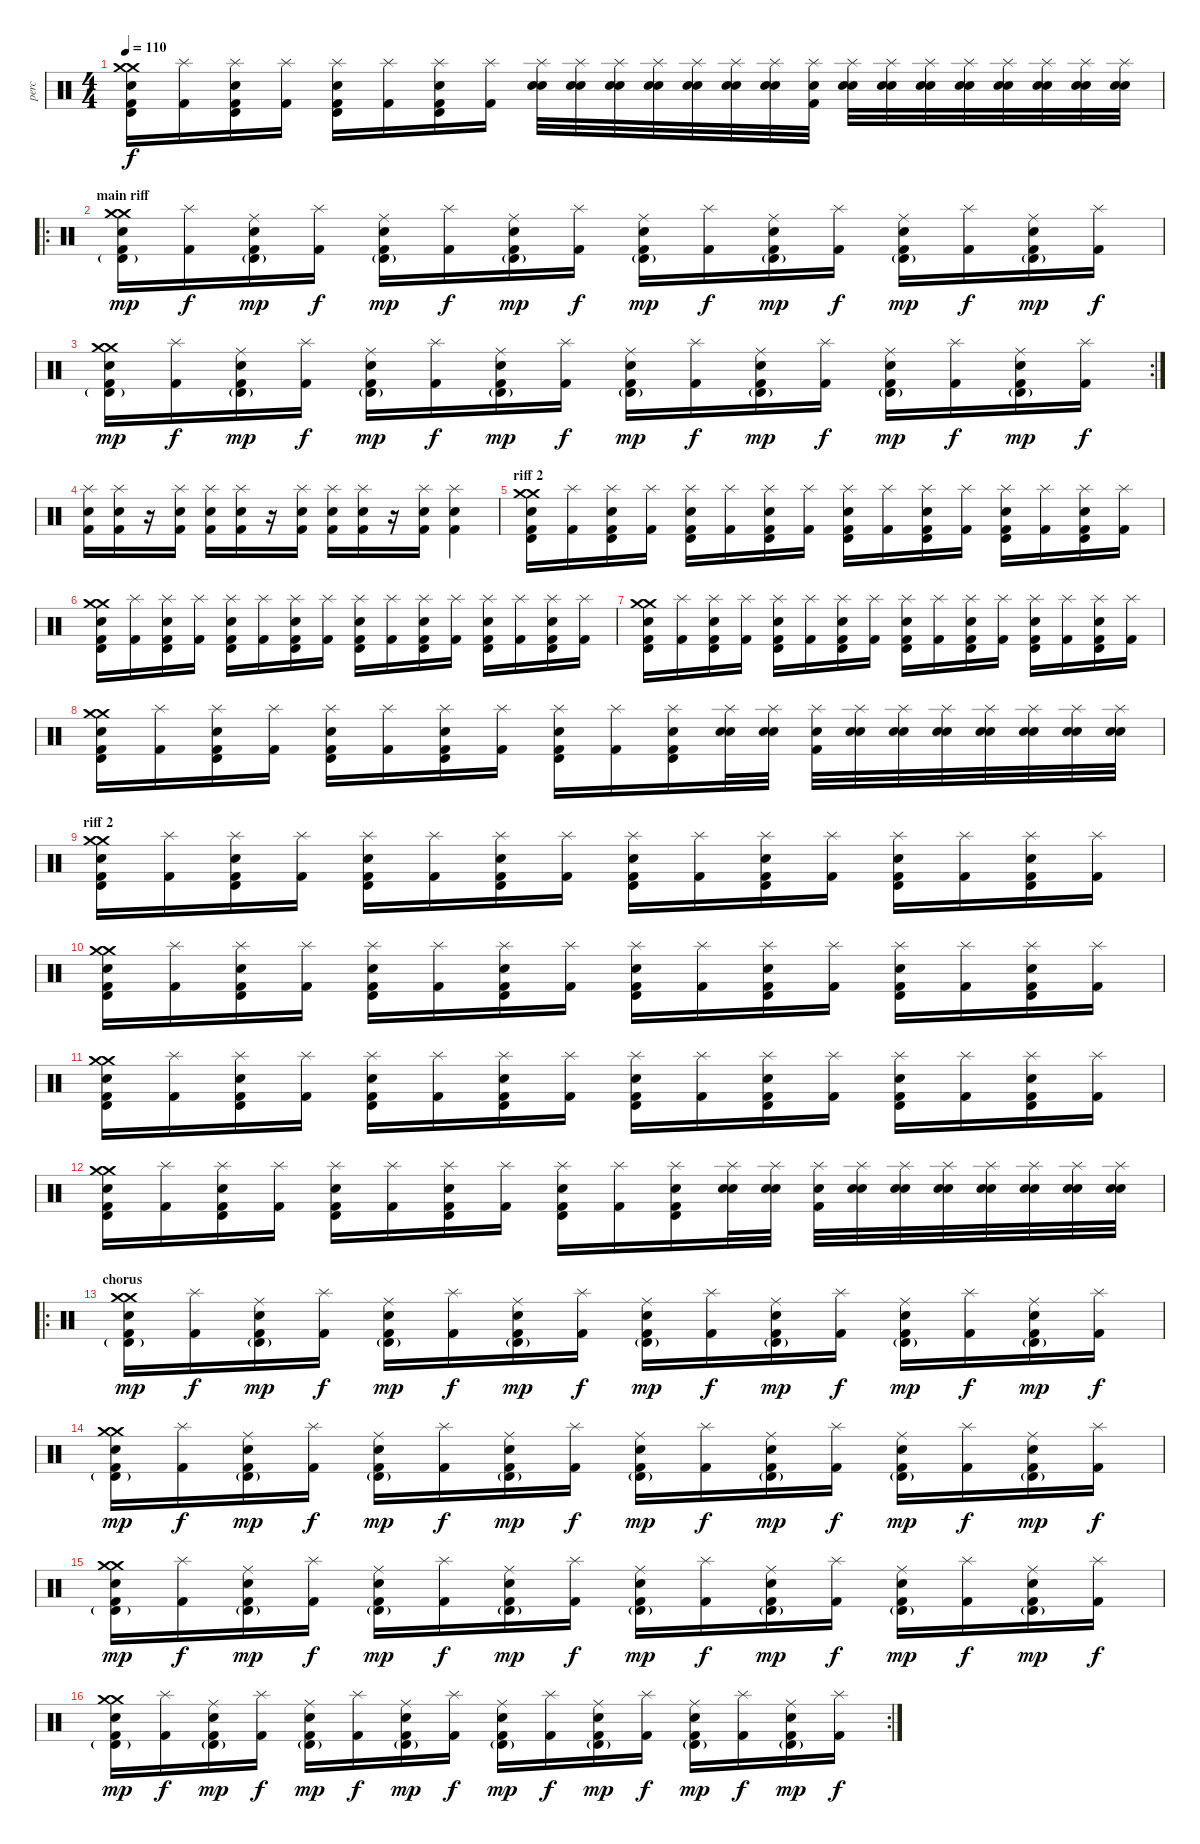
\track ("perc" "perc") {instrument percussion}
\staff {score}
\articulation defaults
\ts (4 4)
\tempo 110
\clef neutral
\ks c
("Crash medium (hit)" "Timbale high (hit)" "Crash medium (hit)" "Kick (hit) 2" "Snare (hit) 2").16{dy f} ("Splash (hit)" "Kick (hit) 2").16 ("Timbale high (hit)" "Splash (hit)" "Kick (hit) 2" "Snare (hit) 2").16 ("Splash (hit)" "Kick (hit) 2").16 ("Timbale high (hit)" "Splash (hit)" "Kick (hit) 2" "Snare (hit) 2").16 ("Splash (hit)" "Kick (hit) 2").16 ("Timbale high (hit)" "Splash (hit)" "Kick (hit) 2" "Snare (hit) 2").16 ("Splash (hit)" "Kick (hit) 2").16 ("Splash (hit)" "Snare (hit) 2" "Snare (hit) 2").32 ("Splash (hit)" "Snare (hit) 2" "Snare (hit) 2").32 ("Splash (hit)" "Snare (hit) 2" "Snare (hit) 2").32 ("Splash (hit)" "Snare (hit) 2" "Snare (hit) 2").32 ("Splash (hit)" "Snare (hit) 2" "Snare (hit) 2").32 ("Splash (hit)" "Snare (hit) 2" "Snare (hit) 2").32 ("Splash (hit)" "Snare (hit) 2" "Snare (hit) 2").32 ("Splash (hit)" "Kick (hit) 2" "Snare (hit) 2").32 ("Splash (hit)" "Snare (hit) 2" "Snare (hit) 2").32 ("Splash (hit)" "Snare (hit) 2" "Snare (hit) 2").32 ("Splash (hit)" "Snare (hit) 2" "Snare (hit) 2").32 ("Splash (hit)" "Snare (hit) 2" "Snare (hit) 2").32 ("Splash (hit)" "Snare (hit) 2" "Snare (hit) 2").32 ("Splash (hit)" "Snare (hit) 2" "Snare (hit) 2").32 ("Splash (hit)" "Snare (hit) 2" "Snare (hit) 2").32 ("Splash (hit)" "Snare (hit) 2" "Snare (hit) 2").32 |
\ro
\section ("" "main riff")
("Crash medium (hit)" "Timbale high (hit)"{g} "Crash medium (hit)" "Kick (hit) 2" "Snare (hit) 2").16{dy mp} ("Splash (hit)" "Kick (hit) 2").16{dy f} ("Timbale high (hit)"{g} "Ride (middle)" "Kick (hit) 2" "Snare (hit) 2").16{dy mp} ("Splash (hit)" "Kick (hit) 2").16{dy f} ("Timbale high (hit)"{g} "Ride (middle)" "Kick (hit) 2" "Snare (hit) 2").16{dy mp} ("Splash (hit)" "Kick (hit) 2").16{dy f} ("Timbale high (hit)"{g} "Ride (middle)" "Kick (hit) 2" "Snare (hit) 2").16{dy mp} ("Splash (hit)" "Kick (hit) 2").16{dy f} ("Timbale high (hit)"{g} "Ride (middle)" "Kick (hit) 2" "Snare (hit) 2").16{dy mp} ("Splash (hit)" "Kick (hit) 2").16{dy f} ("Timbale high (hit)"{g} "Ride (middle)" "Kick (hit) 2" "Snare (hit) 2").16{dy mp} ("Splash (hit)" "Kick (hit) 2").16{dy f} ("Timbale high (hit)"{g} "Ride (middle)" "Kick (hit) 2" "Snare (hit) 2").16{dy mp} ("Splash (hit)" "Kick (hit) 2").16{dy f} ("Timbale high (hit)"{g} "Ride (middle)" "Kick (hit) 2" "Snare (hit) 2").16{dy mp} ("Splash (hit)" "Kick (hit) 2").16{dy f} |
\rc 2
("Crash medium (hit)" "Timbale high (hit)"{g} "Crash medium (hit)" "Kick (hit) 2" "Snare (hit) 2").16{dy mp} ("Splash (hit)" "Kick (hit) 2").16{dy f} ("Timbale high (hit)"{g} "Ride (middle)" "Kick (hit) 2" "Snare (hit) 2").16{dy mp} ("Splash (hit)" "Kick (hit) 2").16{dy f} ("Timbale high (hit)"{g} "Ride (middle)" "Kick (hit) 2" "Snare (hit) 2").16{dy mp} ("Splash (hit)" "Kick (hit) 2").16{dy f} ("Timbale high (hit)"{g} "Ride (middle)" "Kick (hit) 2" "Snare (hit) 2").16{dy mp} ("Splash (hit)" "Kick (hit) 2").16{dy f} ("Timbale high (hit)"{g} "Ride (middle)" "Kick (hit) 2" "Snare (hit) 2").16{dy mp} ("Splash (hit)" "Kick (hit) 2").16{dy f} ("Timbale high (hit)"{g} "Ride (middle)" "Kick (hit) 2" "Snare (hit) 2").16{dy mp} ("Splash (hit)" "Kick (hit) 2").16{dy f} ("Timbale high (hit)"{g} "Ride (middle)" "Kick (hit) 2" "Snare (hit) 2").16{dy mp} ("Splash (hit)" "Kick (hit) 2").16{dy f} ("Timbale high (hit)"{g} "Ride (middle)" "Kick (hit) 2" "Snare (hit) 2").16{dy mp} ("Splash (hit)" "Kick (hit) 2").16{dy f} |
("Splash (hit)" "Snare (hit) 2" "Kick (hit) 2").16 ("Splash (hit)" "Snare (hit) 2" "Kick (hit) 2").16 r.16 ("Splash (hit)" "Snare (hit) 2" "Kick (hit) 2").16 ("Splash (hit)" "Snare (hit) 2" "Kick (hit) 2").16 ("Splash (hit)" "Snare (hit) 2" "Kick (hit) 2").16 r.16 ("Splash (hit)" "Snare (hit) 2" "Kick (hit) 2").16 ("Splash (hit)" "Snare (hit) 2" "Kick (hit) 2").16 ("Splash (hit)" "Snare (hit) 2" "Kick (hit) 2").16 r.16 ("Splash (hit)" "Snare (hit) 2" "Kick (hit) 2").16 ("Splash (hit)" "Snare (hit) 2" "Kick (hit) 2").4 |
\section ("" "riff 2")
("Crash medium (hit)" "Timbale high (hit)" "Crash medium (hit)" "Kick (hit) 2" "Snare (hit) 2").16 ("Splash (hit)" "Kick (hit) 2").16 ("Timbale high (hit)" "Splash (hit)" "Kick (hit) 2" "Snare (hit) 2").16 ("Splash (hit)" "Kick (hit) 2").16 ("Timbale high (hit)" "Splash (hit)" "Kick (hit) 2" "Snare (hit) 2").16 ("Splash (hit)" "Kick (hit) 2").16 ("Timbale high (hit)" "Splash (hit)" "Kick (hit) 2" "Snare (hit) 2").16 ("Splash (hit)" "Kick (hit) 2").16 ("Timbale high (hit)" "Splash (hit)" "Kick (hit) 2" "Snare (hit) 2").16 ("Splash (hit)" "Kick (hit) 2").16 ("Timbale high (hit)" "Splash (hit)" "Kick (hit) 2" "Snare (hit) 2").16 ("Splash (hit)" "Kick (hit) 2").16 ("Timbale high (hit)" "Splash (hit)" "Kick (hit) 2" "Snare (hit) 2").16 ("Splash (hit)" "Kick (hit) 2").16 ("Timbale high (hit)" "Splash (hit)" "Kick (hit) 2" "Snare (hit) 2").16 ("Splash (hit)" "Kick (hit) 2").16 |
("Crash medium (hit)" "Timbale high (hit)" "Crash medium (hit)" "Kick (hit) 2" "Snare (hit) 2").16 ("Splash (hit)" "Kick (hit) 2").16 ("Timbale high (hit)" "Splash (hit)" "Kick (hit) 2" "Snare (hit) 2").16 ("Splash (hit)" "Kick (hit) 2").16 ("Timbale high (hit)" "Splash (hit)" "Kick (hit) 2" "Snare (hit) 2").16 ("Splash (hit)" "Kick (hit) 2").16 ("Timbale high (hit)" "Splash (hit)" "Kick (hit) 2" "Snare (hit) 2").16 ("Splash (hit)" "Kick (hit) 2").16 ("Timbale high (hit)" "Splash (hit)" "Kick (hit) 2" "Snare (hit) 2").16 ("Splash (hit)" "Kick (hit) 2").16 ("Timbale high (hit)" "Splash (hit)" "Kick (hit) 2" "Snare (hit) 2").16 ("Splash (hit)" "Kick (hit) 2").16 ("Timbale high (hit)" "Splash (hit)" "Kick (hit) 2" "Snare (hit) 2").16 ("Splash (hit)" "Kick (hit) 2").16 ("Timbale high (hit)" "Splash (hit)" "Kick (hit) 2" "Snare (hit) 2").16 ("Splash (hit)" "Kick (hit) 2").16 |
("Crash medium (hit)" "Timbale high (hit)" "Crash medium (hit)" "Kick (hit) 2" "Snare (hit) 2").16 ("Splash (hit)" "Kick (hit) 2").16 ("Timbale high (hit)" "Splash (hit)" "Kick (hit) 2" "Snare (hit) 2").16 ("Splash (hit)" "Kick (hit) 2").16 ("Timbale high (hit)" "Splash (hit)" "Kick (hit) 2" "Snare (hit) 2").16 ("Splash (hit)" "Kick (hit) 2").16 ("Timbale high (hit)" "Splash (hit)" "Kick (hit) 2" "Snare (hit) 2").16 ("Splash (hit)" "Kick (hit) 2").16 ("Timbale high (hit)" "Splash (hit)" "Kick (hit) 2" "Snare (hit) 2").16 ("Splash (hit)" "Kick (hit) 2").16 ("Timbale high (hit)" "Splash (hit)" "Kick (hit) 2" "Snare (hit) 2").16 ("Splash (hit)" "Kick (hit) 2").16 ("Timbale high (hit)" "Splash (hit)" "Kick (hit) 2" "Snare (hit) 2").16 ("Splash (hit)" "Kick (hit) 2").16 ("Timbale high (hit)" "Splash (hit)" "Kick (hit) 2" "Snare (hit) 2").16 ("Splash (hit)" "Kick (hit) 2").16 |
("Crash medium (hit)" "Timbale high (hit)" "Crash medium (hit)" "Kick (hit) 2" "Snare (hit) 2").16 ("Splash (hit)" "Kick (hit) 2").16 ("Timbale high (hit)" "Splash (hit)" "Kick (hit) 2" "Snare (hit) 2").16 ("Splash (hit)" "Kick (hit) 2").16 ("Timbale high (hit)" "Splash (hit)" "Kick (hit) 2" "Snare (hit) 2").16 ("Splash (hit)" "Kick (hit) 2").16 ("Timbale high (hit)" "Splash (hit)" "Kick (hit) 2" "Snare (hit) 2").16 ("Splash (hit)" "Kick (hit) 2").16 ("Timbale high (hit)" "Splash (hit)" "Kick (hit) 2" "Snare (hit) 2").16 ("Splash (hit)" "Kick (hit) 2").16 ("Timbale high (hit)" "Splash (hit)" "Kick (hit) 2" "Snare (hit) 2").16 ("Splash (hit)" "Snare (hit) 2" "Snare (hit) 2").32 ("Splash (hit)" "Snare (hit) 2" "Snare (hit) 2").32 ("Splash (hit)" "Kick (hit) 2" "Snare (hit) 2").32 ("Splash (hit)" "Snare (hit) 2" "Snare (hit) 2").32 ("Splash (hit)" "Snare (hit) 2" "Snare (hit) 2").32 ("Splash (hit)" "Snare (hit) 2" "Snare (hit) 2").32 ("Splash (hit)" "Snare (hit) 2" "Snare (hit) 2").32 ("Splash (hit)" "Snare (hit) 2" "Snare (hit) 2").32 ("Splash (hit)" "Snare (hit) 2" "Snare (hit) 2").32 ("Splash (hit)" "Snare (hit) 2" "Snare (hit) 2").32 |
\section ("" "riff 2")
("Crash medium (hit)" "Timbale high (hit)" "Crash medium (hit)" "Kick (hit) 2" "Snare (hit) 2").16 ("Splash (hit)" "Kick (hit) 2").16 ("Timbale high (hit)" "Splash (hit)" "Kick (hit) 2" "Snare (hit) 2").16 ("Splash (hit)" "Kick (hit) 2").16 ("Timbale high (hit)" "Splash (hit)" "Kick (hit) 2" "Snare (hit) 2").16 ("Splash (hit)" "Kick (hit) 2").16 ("Timbale high (hit)" "Splash (hit)" "Kick (hit) 2" "Snare (hit) 2").16 ("Splash (hit)" "Kick (hit) 2").16 ("Timbale high (hit)" "Splash (hit)" "Kick (hit) 2" "Snare (hit) 2").16 ("Splash (hit)" "Kick (hit) 2").16 ("Timbale high (hit)" "Splash (hit)" "Kick (hit) 2" "Snare (hit) 2").16 ("Splash (hit)" "Kick (hit) 2").16 ("Timbale high (hit)" "Splash (hit)" "Kick (hit) 2" "Snare (hit) 2").16 ("Splash (hit)" "Kick (hit) 2").16 ("Timbale high (hit)" "Splash (hit)" "Kick (hit) 2" "Snare (hit) 2").16 ("Splash (hit)" "Kick (hit) 2").16 |
("Crash medium (hit)" "Timbale high (hit)" "Crash medium (hit)" "Kick (hit) 2" "Snare (hit) 2").16 ("Splash (hit)" "Kick (hit) 2").16 ("Timbale high (hit)" "Splash (hit)" "Kick (hit) 2" "Snare (hit) 2").16 ("Splash (hit)" "Kick (hit) 2").16 ("Timbale high (hit)" "Splash (hit)" "Kick (hit) 2" "Snare (hit) 2").16 ("Splash (hit)" "Kick (hit) 2").16 ("Timbale high (hit)" "Splash (hit)" "Kick (hit) 2" "Snare (hit) 2").16 ("Splash (hit)" "Kick (hit) 2").16 ("Timbale high (hit)" "Splash (hit)" "Kick (hit) 2" "Snare (hit) 2").16 ("Splash (hit)" "Kick (hit) 2").16 ("Timbale high (hit)" "Splash (hit)" "Kick (hit) 2" "Snare (hit) 2").16 ("Splash (hit)" "Kick (hit) 2").16 ("Timbale high (hit)" "Splash (hit)" "Kick (hit) 2" "Snare (hit) 2").16 ("Splash (hit)" "Kick (hit) 2").16 ("Timbale high (hit)" "Splash (hit)" "Kick (hit) 2" "Snare (hit) 2").16 ("Splash (hit)" "Kick (hit) 2").16 |
("Crash medium (hit)" "Timbale high (hit)" "Crash medium (hit)" "Kick (hit) 2" "Snare (hit) 2").16 ("Splash (hit)" "Kick (hit) 2").16 ("Timbale high (hit)" "Splash (hit)" "Kick (hit) 2" "Snare (hit) 2").16 ("Splash (hit)" "Kick (hit) 2").16 ("Timbale high (hit)" "Splash (hit)" "Kick (hit) 2" "Snare (hit) 2").16 ("Splash (hit)" "Kick (hit) 2").16 ("Timbale high (hit)" "Splash (hit)" "Kick (hit) 2" "Snare (hit) 2").16 ("Splash (hit)" "Kick (hit) 2").16 ("Timbale high (hit)" "Splash (hit)" "Kick (hit) 2" "Snare (hit) 2").16 ("Splash (hit)" "Kick (hit) 2").16 ("Timbale high (hit)" "Splash (hit)" "Kick (hit) 2" "Snare (hit) 2").16 ("Splash (hit)" "Kick (hit) 2").16 ("Timbale high (hit)" "Splash (hit)" "Kick (hit) 2" "Snare (hit) 2").16 ("Splash (hit)" "Kick (hit) 2").16 ("Timbale high (hit)" "Splash (hit)" "Kick (hit) 2" "Snare (hit) 2").16 ("Splash (hit)" "Kick (hit) 2").16 |
("Crash medium (hit)" "Timbale high (hit)" "Crash medium (hit)" "Kick (hit) 2" "Snare (hit) 2").16 ("Splash (hit)" "Kick (hit) 2").16 ("Timbale high (hit)" "Splash (hit)" "Kick (hit) 2" "Snare (hit) 2").16 ("Splash (hit)" "Kick (hit) 2").16 ("Timbale high (hit)" "Splash (hit)" "Kick (hit) 2" "Snare (hit) 2").16 ("Splash (hit)" "Kick (hit) 2").16 ("Timbale high (hit)" "Splash (hit)" "Kick (hit) 2" "Snare (hit) 2").16 ("Splash (hit)" "Kick (hit) 2").16 ("Timbale high (hit)" "Splash (hit)" "Kick (hit) 2" "Snare (hit) 2").16 ("Splash (hit)" "Kick (hit) 2").16 ("Timbale high (hit)" "Splash (hit)" "Kick (hit) 2" "Snare (hit) 2").16 ("Splash (hit)" "Snare (hit) 2" "Snare (hit) 2").32 ("Splash (hit)" "Snare (hit) 2" "Snare (hit) 2").32 ("Splash (hit)" "Kick (hit) 2" "Snare (hit) 2").32 ("Splash (hit)" "Snare (hit) 2" "Snare (hit) 2").32 ("Splash (hit)" "Snare (hit) 2" "Snare (hit) 2").32 ("Splash (hit)" "Snare (hit) 2" "Snare (hit) 2").32 ("Splash (hit)" "Snare (hit) 2" "Snare (hit) 2").32 ("Splash (hit)" "Snare (hit) 2" "Snare (hit) 2").32 ("Splash (hit)" "Snare (hit) 2" "Snare (hit) 2").32 ("Splash (hit)" "Snare (hit) 2" "Snare (hit) 2").32 |
\ro
\section ("" "chorus")
("Crash medium (hit)" "Timbale high (hit)"{g} "Crash medium (hit)" "Kick (hit) 2" "Snare (hit) 2").16{dy mp} ("Splash (hit)" "Kick (hit) 2").16{dy f} ("Timbale high (hit)"{g} "Ride (middle)" "Kick (hit) 2" "Snare (hit) 2").16{dy mp} ("Splash (hit)" "Kick (hit) 2").16{dy f} ("Timbale high (hit)"{g} "Ride (middle)" "Kick (hit) 2" "Snare (hit) 2").16{dy mp} ("Splash (hit)" "Kick (hit) 2").16{dy f} ("Timbale high (hit)"{g} "Ride (middle)" "Kick (hit) 2" "Snare (hit) 2").16{dy mp} ("Splash (hit)" "Kick (hit) 2").16{dy f} ("Timbale high (hit)"{g} "Ride (middle)" "Kick (hit) 2" "Snare (hit) 2").16{dy mp} ("Splash (hit)" "Kick (hit) 2").16{dy f} ("Timbale high (hit)"{g} "Ride (middle)" "Kick (hit) 2" "Snare (hit) 2").16{dy mp} ("Splash (hit)" "Kick (hit) 2").16{dy f} ("Timbale high (hit)"{g} "Ride (middle)" "Kick (hit) 2" "Snare (hit) 2").16{dy mp} ("Splash (hit)" "Kick (hit) 2").16{dy f} ("Timbale high (hit)"{g} "Ride (middle)" "Kick (hit) 2" "Snare (hit) 2").16{dy mp} ("Splash (hit)" "Kick (hit) 2").16{dy f} |
("Crash medium (hit)" "Timbale high (hit)"{g} "Crash medium (hit)" "Kick (hit) 2" "Snare (hit) 2").16{dy mp} ("Splash (hit)" "Kick (hit) 2").16{dy f} ("Timbale high (hit)"{g} "Ride (middle)" "Kick (hit) 2" "Snare (hit) 2").16{dy mp} ("Splash (hit)" "Kick (hit) 2").16{dy f} ("Timbale high (hit)"{g} "Ride (middle)" "Kick (hit) 2" "Snare (hit) 2").16{dy mp} ("Splash (hit)" "Kick (hit) 2").16{dy f} ("Timbale high (hit)"{g} "Ride (middle)" "Kick (hit) 2" "Snare (hit) 2").16{dy mp} ("Splash (hit)" "Kick (hit) 2").16{dy f} ("Timbale high (hit)"{g} "Ride (middle)" "Kick (hit) 2" "Snare (hit) 2").16{dy mp} ("Splash (hit)" "Kick (hit) 2").16{dy f} ("Timbale high (hit)"{g} "Ride (middle)" "Kick (hit) 2" "Snare (hit) 2").16{dy mp} ("Splash (hit)" "Kick (hit) 2").16{dy f} ("Timbale high (hit)"{g} "Ride (middle)" "Kick (hit) 2" "Snare (hit) 2").16{dy mp} ("Splash (hit)" "Kick (hit) 2").16{dy f} ("Timbale high (hit)"{g} "Ride (middle)" "Kick (hit) 2" "Snare (hit) 2").16{dy mp} ("Splash (hit)" "Kick (hit) 2").16{dy f} |
("Crash medium (hit)" "Timbale high (hit)"{g} "Crash medium (hit)" "Kick (hit) 2" "Snare (hit) 2").16{dy mp} ("Splash (hit)" "Kick (hit) 2").16{dy f} ("Timbale high (hit)"{g} "Ride (middle)" "Kick (hit) 2" "Snare (hit) 2").16{dy mp} ("Splash (hit)" "Kick (hit) 2").16{dy f} ("Timbale high (hit)"{g} "Ride (middle)" "Kick (hit) 2" "Snare (hit) 2").16{dy mp} ("Splash (hit)" "Kick (hit) 2").16{dy f} ("Timbale high (hit)"{g} "Ride (middle)" "Kick (hit) 2" "Snare (hit) 2").16{dy mp} ("Splash (hit)" "Kick (hit) 2").16{dy f} ("Timbale high (hit)"{g} "Ride (middle)" "Kick (hit) 2" "Snare (hit) 2").16{dy mp} ("Splash (hit)" "Kick (hit) 2").16{dy f} ("Timbale high (hit)"{g} "Ride (middle)" "Kick (hit) 2" "Snare (hit) 2").16{dy mp} ("Splash (hit)" "Kick (hit) 2").16{dy f} ("Timbale high (hit)"{g} "Ride (middle)" "Kick (hit) 2" "Snare (hit) 2").16{dy mp} ("Splash (hit)" "Kick (hit) 2").16{dy f} ("Timbale high (hit)"{g} "Ride (middle)" "Kick (hit) 2" "Snare (hit) 2").16{dy mp} ("Splash (hit)" "Kick (hit) 2").16{dy f} |
\rc 2
("Crash medium (hit)" "Timbale high (hit)"{g} "Crash medium (hit)" "Kick (hit) 2" "Snare (hit) 2").16{dy mp} ("Splash (hit)" "Kick (hit) 2").16{dy f} ("Timbale high (hit)"{g} "Ride (middle)" "Kick (hit) 2" "Snare (hit) 2").16{dy mp} ("Splash (hit)" "Kick (hit) 2").16{dy f} ("Timbale high (hit)"{g} "Ride (middle)" "Kick (hit) 2" "Snare (hit) 2").16{dy mp} ("Splash (hit)" "Kick (hit) 2").16{dy f} ("Timbale high (hit)"{g} "Ride (middle)" "Kick (hit) 2" "Snare (hit) 2").16{dy mp} ("Splash (hit)" "Kick (hit) 2").16{dy f} ("Timbale high (hit)"{g} "Ride (middle)" "Kick (hit) 2" "Snare (hit) 2").16{dy mp} ("Splash (hit)" "Kick (hit) 2").16{dy f} ("Timbale high (hit)"{g} "Ride (middle)" "Kick (hit) 2" "Snare (hit) 2").16{dy mp} ("Splash (hit)" "Kick (hit) 2").16{dy f} ("Timbale high (hit)"{g} "Ride (middle)" "Kick (hit) 2" "Snare (hit) 2").16{dy mp} ("Splash (hit)" "Kick (hit) 2").16{dy f} ("Timbale high (hit)"{g} "Ride (middle)" "Kick (hit) 2" "Snare (hit) 2").16{dy mp} ("Splash (hit)" "Kick (hit) 2").16{dy f}
